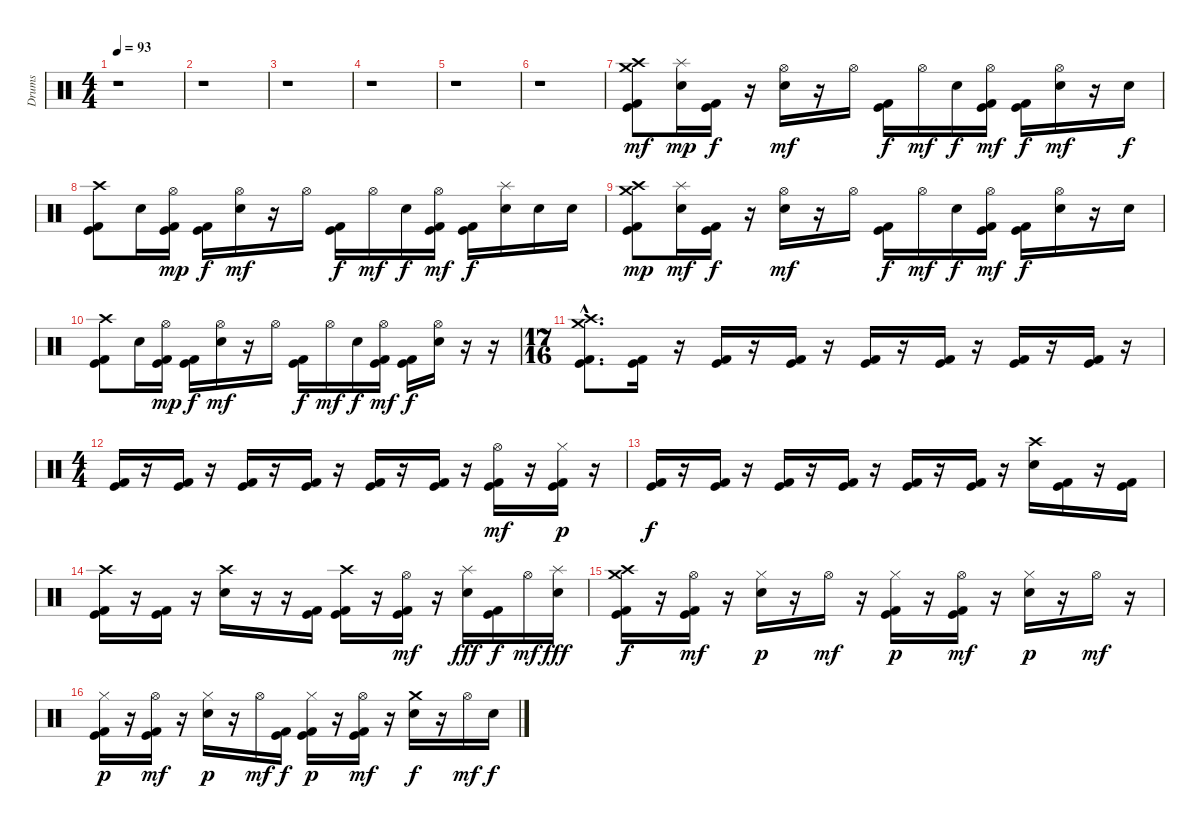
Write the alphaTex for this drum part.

\track ("Drums" "Drums") {instrument percussion}
\staff {score}
\articulation defaults
\ts (4 4)
\tempo 93
\clef neutral
\ks c
r.1{dy mf} |
r.1 |
r.1 |
r.1 |
r.1 |
r.1 |
("Crash medium (hit)" "Crash high (hit)" "Kick (hit)" "Kick (hit) 2").8{volume 16} ("Splash (hit)" "Electric Snare (hit)").16{dy mp} ("Kick (hit)" "Kick (hit) 2").16{dy f} r.16 ("Hi-Hat (open)" "Electric Snare (hit)").16{dy mf} r.16 "Hi-Hat (open)".16 ("Kick (hit)" "Kick (hit) 2").16{dy f} "Hi-Hat (open)".16{dy mf} "Electric Snare (hit)".16{dy f} ("Hi-Hat (open)" "Kick (hit)" "Kick (hit) 2").16{dy mf} ("Kick (hit)" "Kick (hit) 2").16{dy f} ("Hi-Hat (open)" "Electric Snare (hit)").16{dy mf} r.16 "Electric Snare (hit)".16{dy f} |
("Crash high (hit)" "Kick (hit)" "Kick (hit) 2").8 "Electric Snare (hit)".16 ("Hi-Hat (open)" "Kick (hit)" "Kick (hit) 2").16{dy mp} ("Kick (hit)" "Kick (hit) 2").16{dy f} ("Hi-Hat (open)" "Electric Snare (hit)").16{dy mf} r.16 "Hi-Hat (open)".16 ("Kick (hit)" "Kick (hit) 2").16{dy f} "Hi-Hat (open)".16{dy mf} "Electric Snare (hit)".16{dy f} ("Hi-Hat (open)" "Kick (hit)" "Kick (hit) 2").16{dy mf} ("Kick (hit)" "Kick (hit) 2").16{dy f} ("Splash (hit)" "Electric Snare (hit)").16 "Electric Snare (hit)".16 "Electric Snare (hit)".16 |
("Crash medium (hit)" "Crash high (hit)" "Kick (hit)" "Kick (hit) 2").8{dy mp} ("Splash (hit)" "Electric Snare (hit)").16{dy mf} ("Kick (hit)" "Kick (hit) 2").16{dy f} r.16 ("Hi-Hat (open)" "Electric Snare (hit)").16{dy mf} r.16 "Hi-Hat (open)".16 ("Kick (hit)" "Kick (hit) 2").16{dy f} "Hi-Hat (open)".16{dy mf} "Electric Snare (hit)".16{dy f} ("Hi-Hat (open)" "Kick (hit)" "Kick (hit) 2").16{dy mf} ("Kick (hit)" "Kick (hit) 2").16{dy f} ("Hi-Hat (open)" "Electric Snare (hit)").16 r.16 "Electric Snare (hit)".16 |
("Crash high (hit)" "Kick (hit)" "Kick (hit) 2").8 "Electric Snare (hit)".16 ("Hi-Hat (open)" "Kick (hit)" "Kick (hit) 2").16{dy mp} ("Kick (hit)" "Kick (hit) 2").16{dy f} ("Hi-Hat (open)" "Electric Snare (hit)").16{dy mf} r.16 "Hi-Hat (open)".16 ("Kick (hit)" "Kick (hit) 2").16{dy f} "Hi-Hat (open)".16{dy mf} "Electric Snare (hit)".16{dy f} ("Hi-Hat (open)" "Kick (hit)" "Kick (hit) 2").16{dy mf} ("Kick (hit)" "Kick (hit) 2").16{dy f} ("Hi-Hat (open)" "Electric Snare (hit)").16 r.16 r.16 |
\ts (17 16)
("Crash high (hit)"{hac} "Crash medium (hit)"{hac} "Kick (hit)"{hac} "Kick (hit) 2"{hac}).8{d} ("Kick (hit)" "Kick (hit) 2").16 r.16 ("Kick (hit)" "Kick (hit) 2").16 r.16 ("Kick (hit)" "Kick (hit) 2").16 r.16 ("Kick (hit)" "Kick (hit) 2").16 r.16 ("Kick (hit)" "Kick (hit) 2").16 r.16 ("Kick (hit)" "Kick (hit) 2").16 r.16 ("Kick (hit)" "Kick (hit) 2").16 r.16 |
\ts (4 4)
("Kick (hit)" "Kick (hit) 2").16 r.16 ("Kick (hit)" "Kick (hit) 2").16 r.16 ("Kick (hit)" "Kick (hit) 2").16 r.16 ("Kick (hit)" "Kick (hit) 2").16 r.16 ("Kick (hit)" "Kick (hit) 2").16 r.16 ("Kick (hit)" "Kick (hit) 2").16 r.16 ("Hi-Hat (open)" "Kick (hit)" "Kick (hit) 2").16{dy mf} r.16 ("Hi-Hat (closed)" "Kick (hit)" "Kick (hit) 2").16{dy p} r.16 |
("Kick (hit)" "Kick (hit) 2").16{dy f} r.16 ("Kick (hit)" "Kick (hit) 2").16 r.16 ("Kick (hit)" "Kick (hit) 2").16 r.16 ("Kick (hit)" "Kick (hit) 2").16 r.16 ("Kick (hit)" "Kick (hit) 2").16 r.16 ("Kick (hit)" "Kick (hit) 2").16 r.16 ("Crash high (hit)" "Electric Snare (hit)").16 ("Kick (hit)" "Kick (hit) 2").16 r.16 ("Kick (hit)" "Kick (hit) 2").16 |
("Crash high (hit)" "Kick (hit)" "Kick (hit) 2").16 r.16 ("Kick (hit)" "Kick (hit) 2").16 r.16 ("Crash high (hit)" "Electric Snare (hit)").16 r.16 r.16 ("Kick (hit)" "Kick (hit) 2").16 ("Crash high (hit)" "Kick (hit)" "Kick (hit) 2").16 r.16 ("Hi-Hat (open)" "Kick (hit)" "Kick (hit) 2").16{dy mf} r.16 ("Splash (hit)" "Electric Snare (hit)").16{dy fff} ("Kick (hit)" "Kick (hit) 2").16{dy f} "Hi-Hat (open)".16{dy mf} ("Splash (hit)" "Electric Snare (hit)").16{dy fff} |
("Crash high (hit)" "Crash medium (hit)" "Kick (hit)" "Kick (hit) 2").16{dy f} r.16 ("Hi-Hat (open)" "Kick (hit)" "Kick (hit) 2").16{dy mf} r.16 ("Hi-Hat (closed)" "Electric Snare (hit)").16{dy p} r.16 "Hi-Hat (open)".16{dy mf} r.16 ("Hi-Hat (closed)" "Kick (hit)" "Kick (hit) 2").16{dy p} r.16 ("Hi-Hat (open)" "Kick (hit)" "Kick (hit) 2").16{dy mf} r.16 ("Hi-Hat (closed)" "Electric Snare (hit)").16{dy p} r.16 "Hi-Hat (open)".16{dy mf} r.16 |
("Hi-Hat (closed)" "Kick (hit)" "Kick (hit) 2").16{dy p} r.16 ("Hi-Hat (open)" "Kick (hit)" "Kick (hit) 2").16{dy mf} r.16 ("Hi-Hat (closed)" "Electric Snare (hit)").16{dy p} r.16 "Hi-Hat (open)".16{dy mf} ("Kick (hit)" "Kick (hit) 2").16{dy f} ("Hi-Hat (closed)" "Kick (hit)" "Kick (hit) 2").16{dy p} r.16 ("Hi-Hat (open)" "Kick (hit)" "Kick (hit) 2").16{dy mf} r.16 ("Crash medium (hit)" "Electric Snare (hit)").16{dy f} r.16 "Hi-Hat (open)".16{dy mf} "Electric Snare (hit)".16{dy f}
